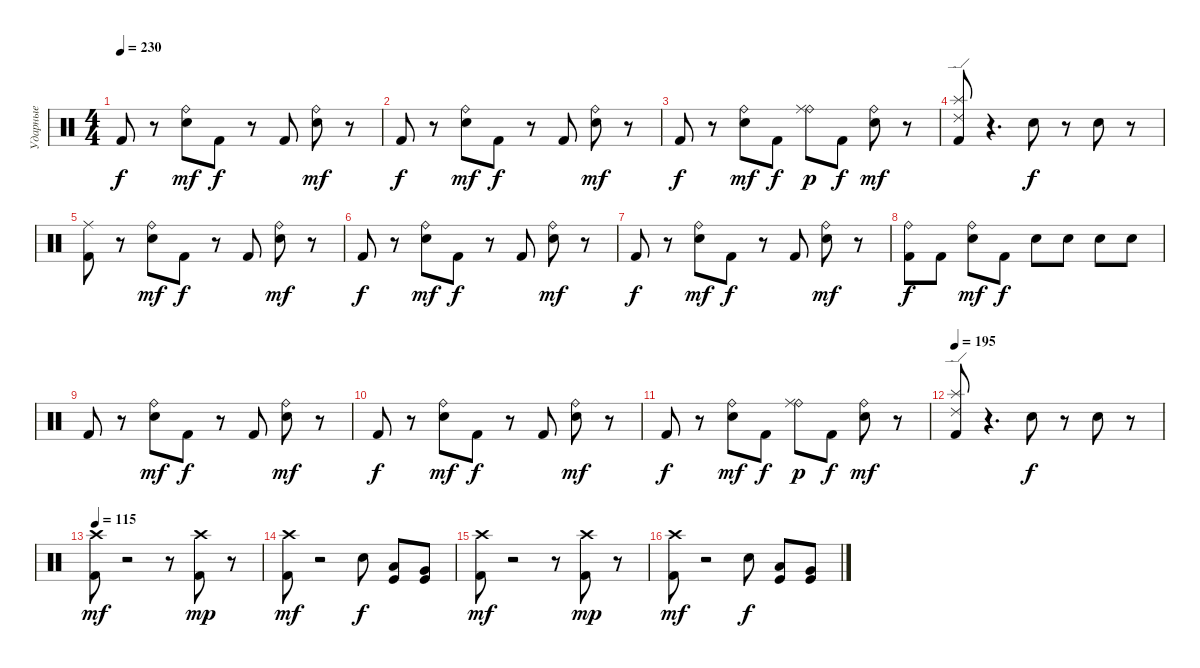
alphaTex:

\track ("Ударные" "Ударные") {instrument percussion}
\staff {score}
\articulation defaults
\ts (4 4)
\tempo 230
\clef neutral
\ks c "Kick (hit) 2".8{dy f}
r.8 ("Ride (bell)" "Snare (hit) 2").8{dy mf} "Kick (hit) 2".8{dy f} r.8 "Kick (hit) 2".8 ("Ride (bell)" "Snare (hit) 2").8{dy mf} r.8 |
"Kick (hit) 2".8{dy f} r.8 ("Ride (bell)" "Snare (hit) 2").8{dy mf} "Kick (hit) 2".8{dy f} r.8 "Kick (hit) 2".8 ("Ride (bell)" "Snare (hit) 2").8{dy mf} r.8 |
"Kick (hit) 2".8{dy f} r.8 ("Ride (bell)" "Snare (hit) 2").8{dy mf} "Kick (hit) 2".8{dy f} ("Ride (bell)" "Ride (middle)").8{dy p} "Kick (hit) 2".8{dy f} ("Ride (bell)" "Snare (hit) 2").8{dy mf} r.8 |
("Splash (hit)" "Ride (edge) 2" "Kick (hit) 2").8 r.4{d} "Snare (hit) 2".8{dy f} r.8 "Snare (hit) 2".8 r.8 |
("Ride (middle)" "Kick (hit) 2").8 r.8 ("Ride (bell)" "Snare (hit) 2").8{dy mf} "Kick (hit) 2".8{dy f} r.8 "Kick (hit) 2".8 ("Ride (bell)" "Snare (hit) 2").8{dy mf} r.8 |
"Kick (hit) 2".8{dy f} r.8 ("Ride (bell)" "Snare (hit) 2").8{dy mf} "Kick (hit) 2".8{dy f} r.8 "Kick (hit) 2".8 ("Ride (bell)" "Snare (hit) 2").8{dy mf} r.8 |
"Kick (hit) 2".8{dy f} r.8 ("Ride (bell)" "Snare (hit) 2").8{dy mf} "Kick (hit) 2".8{dy f} r.8 "Kick (hit) 2".8 ("Ride (bell)" "Snare (hit) 2").8{dy mf} r.8 |
("Ride (bell)" "Kick (hit) 2").8{dy f} "Kick (hit) 2".8 ("Ride (bell)" "Snare (hit) 2").8{dy mf} "Kick (hit) 2".8{dy f} "Snare (hit) 2".8 "Snare (hit) 2".8 "Snare (hit) 2".8 "Snare (hit) 2".8 |
"Kick (hit) 2".8 r.8 ("Ride (bell)" "Snare (hit) 2").8{dy mf} "Kick (hit) 2".8{dy f} r.8 "Kick (hit) 2".8 ("Ride (bell)" "Snare (hit) 2").8{dy mf} r.8 |
"Kick (hit) 2".8{dy f} r.8 ("Ride (bell)" "Snare (hit) 2").8{dy mf} "Kick (hit) 2".8{dy f} r.8 "Kick (hit) 2".8 ("Ride (bell)" "Snare (hit) 2").8{dy mf} r.8 |
"Kick (hit) 2".8{dy f} r.8 ("Ride (bell)" "Snare (hit) 2").8{dy mf} "Kick (hit) 2".8{dy f} ("Ride (bell)" "Ride (middle)").8{dy p} "Kick (hit) 2".8{dy f} ("Ride (bell)" "Snare (hit) 2").8{dy mf} r.8 |
\tempo 195
("Splash (hit)" "Ride (edge) 2" "Kick (hit) 2").8 r.4{d} "Snare (hit) 2".8{dy f} r.8 "Snare (hit) 2".8 r.8 |
\tempo 115
("Crash high (hit)" "Kick (hit) 2").8{dy mf} r.2 r.8 ("Crash high (hit)" "Kick (hit) 2").8{dy mp} r.8 |
("Crash high (hit)" "Kick (hit) 2").8{dy mf} r.2 "Snare (hit) 2".8{dy f} ("Kick (hit)" "Low Tom (hit)").8 ("Kick (hit)" "Very Low Tom (hit)").8 |
("Crash high (hit)" "Kick (hit) 2").8{dy mf} r.2 r.8 ("Crash high (hit)" "Kick (hit) 2").8{dy mp} r.8 |
("Crash high (hit)" "Kick (hit) 2").8{dy mf} r.2 "Snare (hit) 2".8{dy f} ("Kick (hit)" "Low Tom (hit)").8 ("Kick (hit)" "Very Low Tom (hit)").8
